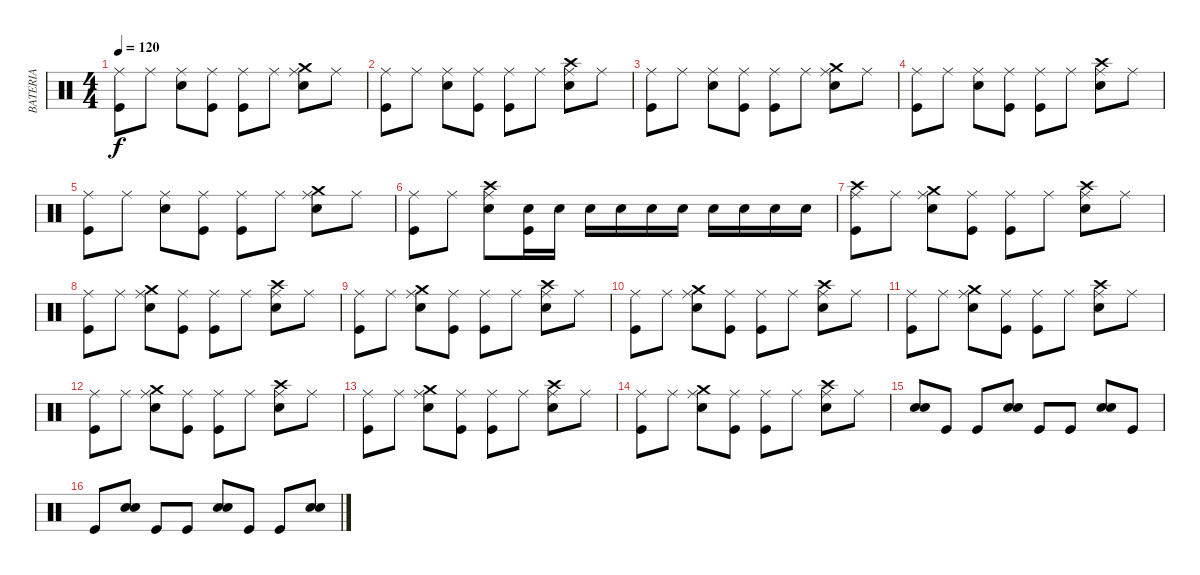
\track ("BATERIA" "BATERIA") {instrument percussion}
\staff {score}
\articulation defaults
\ts (4 4)
\tempo 120
\clef neutral
\ks c
("Ride (middle)" "Kick (hit)").8{dy f} "Ride (middle)".8 ("Ride (middle)" "Snare (hit) 2").8 ("Ride (middle)" "Kick (hit)").8 ("Ride (middle)" "Kick (hit)").8 "Ride (middle)".8 ("Crash medium (hit)" "Ride (middle)" "Snare (hit) 2").8 "Ride (middle)".8 |
("Ride (middle)" "Kick (hit)").8 "Ride (middle)".8 ("Ride (middle)" "Snare (hit) 2").8 ("Ride (middle)" "Kick (hit)").8 ("Ride (middle)" "Kick (hit)").8 "Ride (middle)".8 ("Crash high (hit)" "Ride (middle)" "Snare (hit) 2").8 "Ride (middle)".8 |
("Ride (middle)" "Kick (hit)").8 "Ride (middle)".8 ("Ride (middle)" "Snare (hit) 2").8 ("Ride (middle)" "Kick (hit)").8 ("Ride (middle)" "Kick (hit)").8 "Ride (middle)".8 ("Crash medium (hit)" "Ride (middle)" "Snare (hit) 2").8 "Ride (middle)".8 |
("Ride (middle)" "Kick (hit)").8 "Ride (middle)".8 ("Ride (middle)" "Snare (hit) 2").8 ("Ride (middle)" "Kick (hit)").8 ("Ride (middle)" "Kick (hit)").8 "Ride (middle)".8 ("Crash high (hit)" "Ride (middle)" "Snare (hit) 2").8 "Ride (middle)".8 |
("Ride (middle)" "Kick (hit)").8 "Ride (middle)".8 ("Ride (middle)" "Snare (hit) 2").8 ("Ride (middle)" "Kick (hit)").8 ("Ride (middle)" "Kick (hit)").8 "Ride (middle)".8 ("Crash medium (hit)" "Ride (middle)" "Snare (hit) 2").8 "Ride (middle)".8 |
("Ride (middle)" "Kick (hit)").8 "Ride (middle)".8 ("Crash high (hit)" "Ride (middle)" "Snare (hit) 2").8 ("Snare (hit) 2" "Kick (hit)").16 "Snare (hit) 2".16 "Snare (hit) 2".16 "Snare (hit) 2".16 "Snare (hit) 2".16 "Snare (hit) 2".16 "Snare (hit) 2".16 "Snare (hit) 2".16 "Snare (hit) 2".16 "Snare (hit) 2".16 |
("Crash high (hit)" "Ride (middle)" "Kick (hit)").8 "Ride (middle)".8 ("Crash medium (hit)" "Ride (middle)" "Snare (hit) 2").8 ("Ride (middle)" "Kick (hit)").8 ("Ride (middle)" "Kick (hit)").8 "Ride (middle)".8 ("Crash high (hit)" "Ride (middle)" "Snare (hit) 2").8 "Ride (middle)".8 |
("Ride (middle)" "Kick (hit)").8 "Ride (middle)".8 ("Crash medium (hit)" "Ride (middle)" "Snare (hit) 2").8 ("Ride (middle)" "Kick (hit)").8 ("Ride (middle)" "Kick (hit)").8 "Ride (middle)".8 ("Crash high (hit)" "Ride (middle)" "Snare (hit) 2").8 "Ride (middle)".8 |
("Ride (middle)" "Kick (hit)").8 "Ride (middle)".8 ("Crash medium (hit)" "Ride (middle)" "Snare (hit) 2").8 ("Ride (middle)" "Kick (hit)").8 ("Ride (middle)" "Kick (hit)").8 "Ride (middle)".8 ("Crash high (hit)" "Ride (middle)" "Snare (hit) 2").8 "Ride (middle)".8 |
("Ride (middle)" "Kick (hit)").8 "Ride (middle)".8 ("Crash medium (hit)" "Ride (middle)" "Snare (hit) 2").8 ("Ride (middle)" "Kick (hit)").8 ("Ride (middle)" "Kick (hit)").8 "Ride (middle)".8 ("Crash high (hit)" "Ride (middle)" "Snare (hit) 2").8 "Ride (middle)".8 |
("Ride (middle)" "Kick (hit)").8 "Ride (middle)".8 ("Crash medium (hit)" "Ride (middle)" "Snare (hit) 2").8 ("Ride (middle)" "Kick (hit)").8 ("Ride (middle)" "Kick (hit)").8 "Ride (middle)".8 ("Crash high (hit)" "Ride (middle)" "Snare (hit) 2").8 "Ride (middle)".8 |
("Ride (middle)" "Kick (hit)").8 "Ride (middle)".8 ("Crash medium (hit)" "Ride (middle)" "Snare (hit) 2").8 ("Ride (middle)" "Kick (hit)").8 ("Ride (middle)" "Kick (hit)").8 "Ride (middle)".8 ("Crash high (hit)" "Ride (middle)" "Snare (hit) 2").8 "Ride (middle)".8 |
("Ride (middle)" "Kick (hit)").8 "Ride (middle)".8 ("Crash medium (hit)" "Ride (middle)" "Snare (hit) 2").8 ("Ride (middle)" "Kick (hit)").8 ("Ride (middle)" "Kick (hit)").8 "Ride (middle)".8 ("Crash high (hit)" "Ride (middle)" "Snare (hit) 2").8 "Ride (middle)".8 |
("Ride (middle)" "Kick (hit)").8 "Ride (middle)".8 ("Crash medium (hit)" "Ride (middle)" "Snare (hit) 2").8 ("Ride (middle)" "Kick (hit)").8 ("Ride (middle)" "Kick (hit)").8 "Ride (middle)".8 ("Crash high (hit)" "Ride (middle)" "Snare (hit) 2").8 "Ride (middle)".8 |
("Snare (hit) 2" "Snare (hit) 2").8 "Kick (hit)".8 "Kick (hit)".8 ("Snare (hit) 2" "Snare (hit) 2").8 "Kick (hit)".8 "Kick (hit)".8 ("Snare (hit) 2" "Snare (hit) 2").8 "Kick (hit)".8 |
"Kick (hit)".8 ("Snare (hit) 2" "Snare (hit) 2").8 "Kick (hit)".8 "Kick (hit)".8 ("Snare (hit) 2" "Snare (hit) 2").8 "Kick (hit)".8 "Kick (hit)".8 ("Snare (hit) 2" "Snare (hit) 2").8
